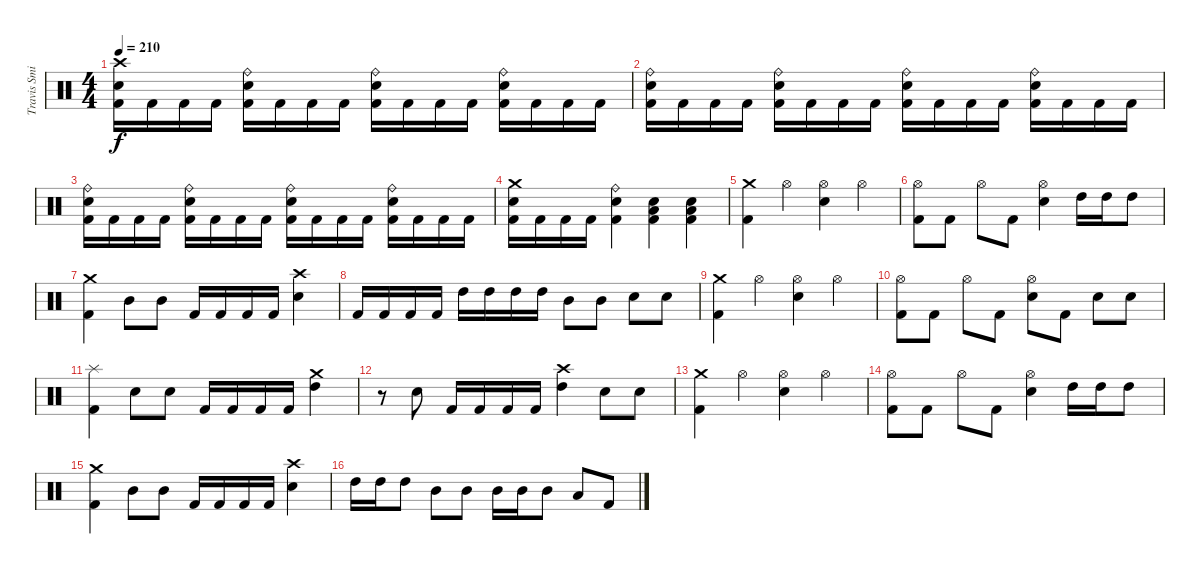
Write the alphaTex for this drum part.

\track ("Travis Smith" "Travis Smi") {instrument percussion}
\staff {score}
\articulation defaults
\ts (4 4)
\tempo 210
\clef neutral
\ks c
("Crash high (hit)" "Electric Snare (hit)" "Kick (hit) 2").16{dy f} "Kick (hit) 2".16 "Kick (hit) 2".16 "Kick (hit) 2".16 ("Ride (bell)" "Electric Snare (hit)" "Kick (hit) 2").16 "Kick (hit) 2".16 "Kick (hit) 2".16 "Kick (hit) 2".16 ("Ride (bell)" "Electric Snare (hit)" "Kick (hit) 2").16 "Kick (hit) 2".16 "Kick (hit) 2".16 "Kick (hit) 2".16 ("Ride (bell)" "Electric Snare (hit)" "Kick (hit) 2").16 "Kick (hit) 2".16 "Kick (hit) 2".16 "Kick (hit) 2".16 |
("Ride (bell)" "Electric Snare (hit)" "Kick (hit) 2").16 "Kick (hit) 2".16 "Kick (hit) 2".16 "Kick (hit) 2".16 ("Ride (bell)" "Electric Snare (hit)" "Kick (hit) 2").16 "Kick (hit) 2".16 "Kick (hit) 2".16 "Kick (hit) 2".16 ("Ride (bell)" "Electric Snare (hit)" "Kick (hit) 2").16 "Kick (hit) 2".16 "Kick (hit) 2".16 "Kick (hit) 2".16 ("Ride (bell)" "Electric Snare (hit)" "Kick (hit) 2").16 "Kick (hit) 2".16 "Kick (hit) 2".16 "Kick (hit) 2".16 |
("Ride (bell)" "Electric Snare (hit)" "Kick (hit) 2").16 "Kick (hit) 2".16 "Kick (hit) 2".16 "Kick (hit) 2".16 ("Ride (bell)" "Electric Snare (hit)" "Kick (hit) 2").16 "Kick (hit) 2".16 "Kick (hit) 2".16 "Kick (hit) 2".16 ("Ride (bell)" "Electric Snare (hit)" "Kick (hit) 2").16 "Kick (hit) 2".16 "Kick (hit) 2".16 "Kick (hit) 2".16 ("Ride (bell)" "Electric Snare (hit)" "Kick (hit) 2").16 "Kick (hit) 2".16 "Kick (hit) 2".16 "Kick (hit) 2".16 |
("Crash medium (hit)" "Electric Snare (hit)" "Kick (hit) 2").16 "Kick (hit) 2".16 "Kick (hit) 2".16 "Kick (hit) 2".16 ("Ride (bell)" "Electric Snare (hit)" "Kick (hit) 2").4 ("Low Tom (hit)" "Electric Snare (hit)" "Kick (hit) 2").4 ("Low Tom (hit)" "Electric Snare (hit)" "Kick (hit) 2").4 |
("Crash medium (hit)" "Kick (hit) 2").4 "Hi-Hat (open)".4 ("Hi-Hat (open)" "Electric Snare (hit)").4 "Hi-Hat (open)".4 |
("Hi-Hat (open)" "Kick (hit) 2").8 "Kick (hit) 2".8 "Hi-Hat (open)".8 "Kick (hit) 2".8 ("Hi-Hat (open)" "Electric Snare (hit)").4 "High Tom (hit)".16 "High Tom (hit)".16 "High Tom (hit)".8 |
("Crash medium (hit)" "Kick (hit) 2").4 "Mid Tom (hit)".8 "Mid Tom (hit)".8 "Kick (hit) 2".16 "Kick (hit) 2".16 "Kick (hit) 2".16 "Kick (hit) 2".16 ("Crash high (hit)" "Electric Snare (hit)").4 |
"Kick (hit) 2".16 "Kick (hit) 2".16 "Kick (hit) 2".16 "Kick (hit) 2".16 "High Tom (hit)".16 "High Tom (hit)".16 "High Tom (hit)".16 "High Tom (hit)".16 "Mid Tom (hit)".8 "Mid Tom (hit)".8 "Electric Snare (hit)".8 "Electric Snare (hit)".8 |
("Crash medium (hit)" "Kick (hit) 2").4 "Hi-Hat (open)".4 ("Hi-Hat (open)" "Electric Snare (hit)").4 "Hi-Hat (open)".4 |
("Hi-Hat (open)" "Kick (hit) 2").8 "Kick (hit) 2".8 "Hi-Hat (open)".8 "Kick (hit) 2".8 ("Hi-Hat (open)" "Electric Snare (hit)").8 "Kick (hit) 2".8 "Electric Snare (hit)".8 "Electric Snare (hit)".8 |
("Splash (hit)" "Kick (hit) 2").4 "Electric Snare (hit)".8 "Electric Snare (hit)".8 "Kick (hit) 2".16 "Kick (hit) 2".16 "Kick (hit) 2".16 "Kick (hit) 2".16 ("Crash medium (hit)" "High Tom (hit)").4 |
r.8 "Electric Snare (hit)".8 "Kick (hit) 2".16 "Kick (hit) 2".16 "Kick (hit) 2".16 "Kick (hit) 2".16 ("Crash high (hit)" "High Tom (hit)").4 "Electric Snare (hit)".8 "Electric Snare (hit)".8 |
("Crash medium (hit)" "Kick (hit) 2").4 "Hi-Hat (open)".4 ("Hi-Hat (open)" "Electric Snare (hit)").4 "Hi-Hat (open)".4 |
("Hi-Hat (open)" "Kick (hit) 2").8 "Kick (hit) 2".8 "Hi-Hat (open)".8 "Kick (hit) 2".8 ("Hi-Hat (open)" "Electric Snare (hit)").4 "High Tom (hit)".16 "High Tom (hit)".16 "High Tom (hit)".8 |
("Crash medium (hit)" "Kick (hit) 2").4 "Mid Tom (hit)".8 "Mid Tom (hit)".8 "Kick (hit) 2".16 "Kick (hit) 2".16 "Kick (hit) 2".16 "Kick (hit) 2".16 ("Crash high (hit)" "Electric Snare (hit)").4 |
"High Tom (hit)".16 "High Tom (hit)".16 "High Tom (hit)".8 "Mid Tom (hit)".8 "Mid Tom (hit)".8 "Mid Tom (hit)".16 "Mid Tom (hit)".16 "Mid Tom (hit)".8 "Low Tom (hit)".8 "Kick (hit) 2".8
